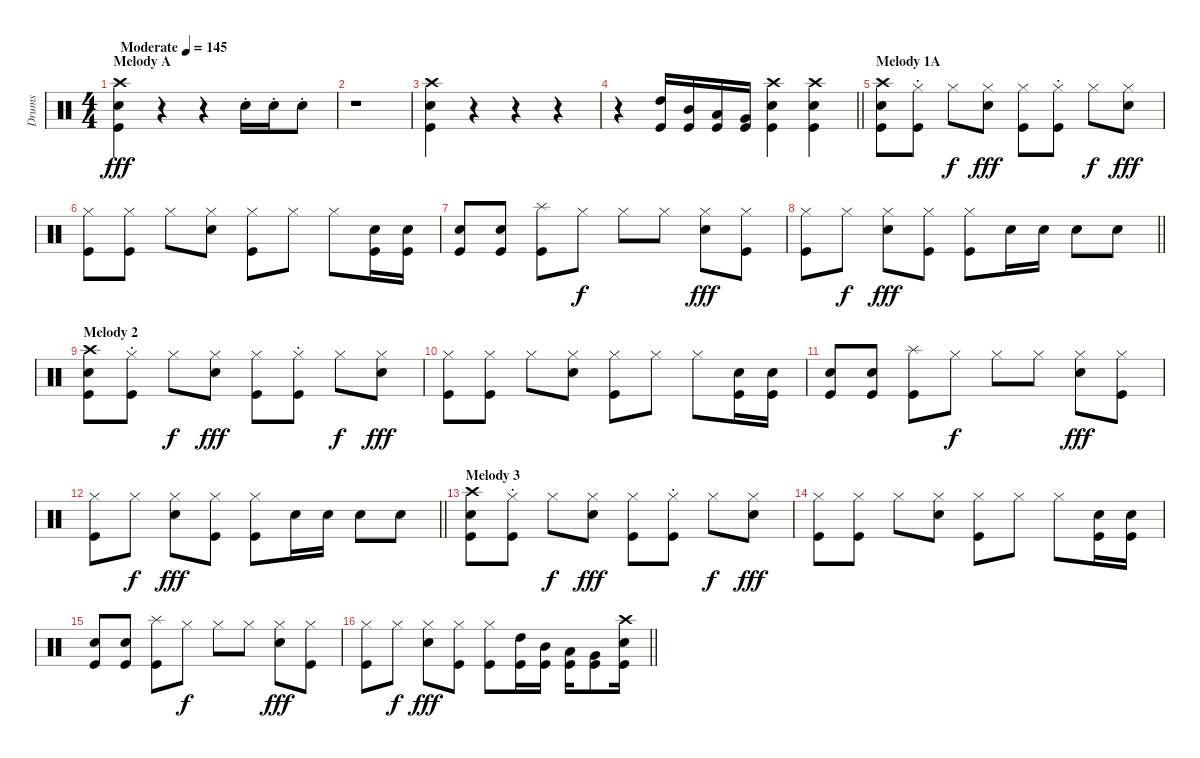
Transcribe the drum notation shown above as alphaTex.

\track ("Drums" "Drums") {instrument percussion}
\staff {score}
\articulation defaults
\ts (4 4)
\section ("" "Melody A")
\tempo (145 "Moderate")
\clef neutral
\ks c
("Crash high (hit)" "Electric Snare (hit)" "Kick (hit)").4{dy fff} r.4 r.4 "Electric Snare (hit)"{st}.16 "Electric Snare (hit)"{st}.16 "Electric Snare (hit)"{st}.8 |
r.1 |
("Crash high (hit)" "Electric Snare (hit)" "Kick (hit)").4 r.4 r.4 r.4 |
\barLineRight lightlight
r.4 ("High Tom (hit)" "Kick (hit)").16 ("Mid Tom (hit)" "Kick (hit)").16 ("Low Tom (hit)" "Kick (hit)").16 ("Very Low Tom (hit)" "Kick (hit)").16 ("Crash high (hit)" "Electric Snare (hit)" "Kick (hit)").4 ("Crash high (hit)" "Electric Snare (hit)" "Kick (hit)").4 |
\section ("" "Melody 1A")
("Crash high (hit)" "Electric Snare (hit)" "Kick (hit)").8 ("Hi-Hat (closed)"{st} "Kick (hit)").8 "Hi-Hat (closed)".8{dy f} ("Hi-Hat (closed)" "Electric Snare (hit)").8{dy fff} ("Hi-Hat (closed)" "Kick (hit)").8 ("Hi-Hat (closed)"{st} "Kick (hit)").8 "Hi-Hat (closed)".8{dy f} ("Hi-Hat (closed)" "Electric Snare (hit)").8{dy fff} |
("Hi-Hat (closed)" "Kick (hit)").8 ("Hi-Hat (closed)" "Kick (hit)").8 "Hi-Hat (closed)".8 ("Hi-Hat (closed)" "Electric Snare (hit)").8 ("Hi-Hat (closed)" "Kick (hit)").8 "Hi-Hat (closed)".8 "Hi-Hat (closed)".8 ("Electric Snare (hit)" "Kick (hit)").16 ("Electric Snare (hit)" "Kick (hit)").16 |
("Electric Snare (hit)" "Kick (hit)").8 ("Electric Snare (hit)" "Kick (hit)").8 ("Splash (hit)" "Kick (hit)").8 "Hi-Hat (closed)".8{dy f} "Hi-Hat (closed)".8 "Hi-Hat (closed)".8 ("Hi-Hat (closed)" "Electric Snare (hit)").8{dy fff} ("Hi-Hat (closed)" "Kick (hit)").8 |
\barLineRight lightlight
("Hi-Hat (closed)" "Kick (hit)").8 "Hi-Hat (closed)".8{dy f} ("Hi-Hat (closed)" "Electric Snare (hit)").8{dy fff} ("Hi-Hat (closed)" "Kick (hit)").8 ("Hi-Hat (closed)" "Kick (hit)").8 "Electric Snare (hit)".16 "Electric Snare (hit)".16 "Electric Snare (hit)".8 "Electric Snare (hit)".8 |
\section ("" "Melody 2")
("Crash high (hit)" "Electric Snare (hit)" "Kick (hit)").8 ("Hi-Hat (closed)"{st} "Kick (hit)").8 "Hi-Hat (closed)".8{dy f} ("Hi-Hat (closed)" "Electric Snare (hit)").8{dy fff} ("Hi-Hat (closed)" "Kick (hit)").8 ("Hi-Hat (closed)"{st} "Kick (hit)").8 "Hi-Hat (closed)".8{dy f} ("Hi-Hat (closed)" "Electric Snare (hit)").8{dy fff} |
("Hi-Hat (closed)" "Kick (hit)").8 ("Hi-Hat (closed)" "Kick (hit)").8 "Hi-Hat (closed)".8 ("Hi-Hat (closed)" "Electric Snare (hit)").8 ("Hi-Hat (closed)" "Kick (hit)").8 "Hi-Hat (closed)".8 "Hi-Hat (closed)".8 ("Electric Snare (hit)" "Kick (hit)").16 ("Electric Snare (hit)" "Kick (hit)").16 |
("Electric Snare (hit)" "Kick (hit)").8 ("Electric Snare (hit)" "Kick (hit)").8 ("Splash (hit)" "Kick (hit)").8 "Hi-Hat (closed)".8{dy f} "Hi-Hat (closed)".8 "Hi-Hat (closed)".8 ("Hi-Hat (closed)" "Electric Snare (hit)").8{dy fff} ("Hi-Hat (closed)" "Kick (hit)").8 |
\barLineRight lightlight
("Hi-Hat (closed)" "Kick (hit)").8 "Hi-Hat (closed)".8{dy f} ("Hi-Hat (closed)" "Electric Snare (hit)").8{dy fff} ("Hi-Hat (closed)" "Kick (hit)").8 ("Hi-Hat (closed)" "Kick (hit)").8 "Electric Snare (hit)".16 "Electric Snare (hit)".16 "Electric Snare (hit)".8 "Electric Snare (hit)".8 |
\section ("" "Melody 3")
("Crash high (hit)" "Electric Snare (hit)" "Kick (hit)").8 ("Hi-Hat (closed)"{st} "Kick (hit)").8 "Hi-Hat (closed)".8{dy f} ("Hi-Hat (closed)" "Electric Snare (hit)").8{dy fff} ("Hi-Hat (closed)" "Kick (hit)").8 ("Hi-Hat (closed)"{st} "Kick (hit)").8 "Hi-Hat (closed)".8{dy f} ("Hi-Hat (closed)" "Electric Snare (hit)").8{dy fff} |
("Hi-Hat (closed)" "Kick (hit)").8 ("Hi-Hat (closed)" "Kick (hit)").8 "Hi-Hat (closed)".8 ("Hi-Hat (closed)" "Electric Snare (hit)").8 ("Hi-Hat (closed)" "Kick (hit)").8 "Hi-Hat (closed)".8 "Hi-Hat (closed)".8 ("Electric Snare (hit)" "Kick (hit)").16 ("Electric Snare (hit)" "Kick (hit)").16 |
("Electric Snare (hit)" "Kick (hit)").8 ("Electric Snare (hit)" "Kick (hit)").8 ("Splash (hit)" "Kick (hit)").8 "Hi-Hat (closed)".8{dy f} "Hi-Hat (closed)".8 "Hi-Hat (closed)".8 ("Hi-Hat (closed)" "Electric Snare (hit)").8{dy fff} ("Hi-Hat (closed)" "Kick (hit)").8 |
\barLineRight lightlight
("Hi-Hat (closed)" "Kick (hit)").8 "Hi-Hat (closed)".8{dy f} ("Hi-Hat (closed)" "Electric Snare (hit)").8{dy fff} ("Hi-Hat (closed)" "Kick (hit)").8 ("Hi-Hat (closed)" "Kick (hit)").8 ("High Tom (hit)" "Kick (hit)").16 ("Mid Tom (hit)" "Kick (hit)").16 ("Low Tom (hit)" "Kick (hit)").16 ("Very Low Tom (hit)" "Kick (hit)").8 ("Crash high (hit)" "Electric Snare (hit)" "Kick (hit)").16
